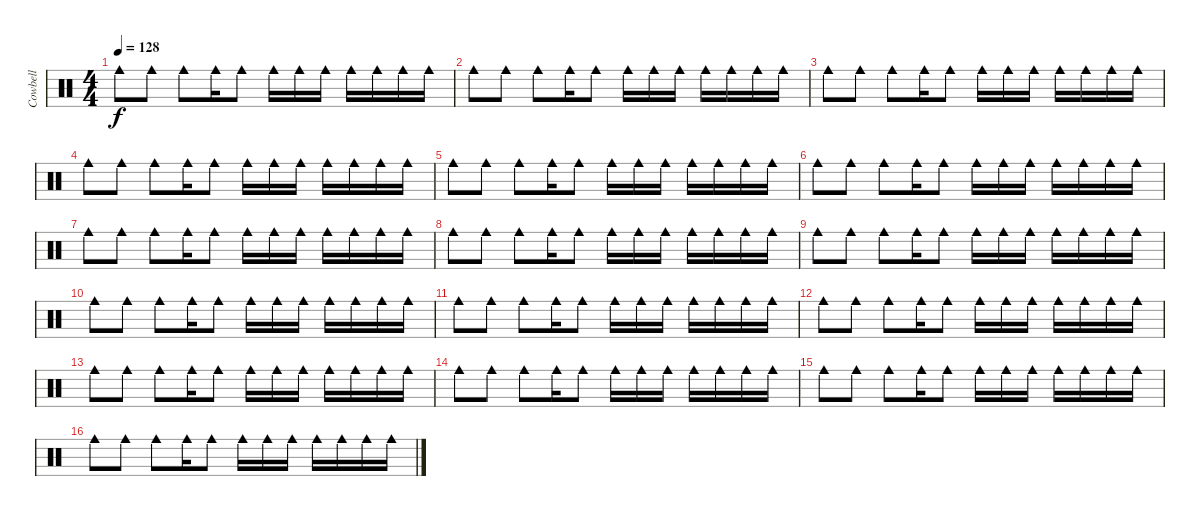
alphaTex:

\track ("Cowbell" "Cowbell") {instrument percussion}
\staff {score}
\articulation defaults
\ts (4 4)
\tempo 128
\clef neutral
\ks c "Cowbell medium (hit)".8{dy f} "Cowbell medium (hit)".8 "Cowbell medium (hit)".8 "Cowbell medium (hit)".16 "Cowbell medium (hit)".8 "Cowbell medium (hit)".16 "Cowbell medium (hit)".16 "Cowbell medium (hit)".16 "Cowbell medium (hit)".16 "Cowbell medium (hit)".16 "Cowbell medium (hit)".16 "Cowbell medium (hit)".16
|
"Cowbell medium (hit)".8 "Cowbell medium (hit)".8 "Cowbell medium (hit)".8 "Cowbell medium (hit)".16 "Cowbell medium (hit)".8 "Cowbell medium (hit)".16 "Cowbell medium (hit)".16 "Cowbell medium (hit)".16 "Cowbell medium (hit)".16 "Cowbell medium (hit)".16 "Cowbell medium (hit)".16 "Cowbell medium (hit)".16 |
"Cowbell medium (hit)".8 "Cowbell medium (hit)".8 "Cowbell medium (hit)".8 "Cowbell medium (hit)".16 "Cowbell medium (hit)".8 "Cowbell medium (hit)".16 "Cowbell medium (hit)".16 "Cowbell medium (hit)".16 "Cowbell medium (hit)".16 "Cowbell medium (hit)".16 "Cowbell medium (hit)".16 "Cowbell medium (hit)".16 |
"Cowbell medium (hit)".8 "Cowbell medium (hit)".8 "Cowbell medium (hit)".8 "Cowbell medium (hit)".16 "Cowbell medium (hit)".8 "Cowbell medium (hit)".16 "Cowbell medium (hit)".16 "Cowbell medium (hit)".16 "Cowbell medium (hit)".16 "Cowbell medium (hit)".16 "Cowbell medium (hit)".16 "Cowbell medium (hit)".16 |
"Cowbell medium (hit)".8 "Cowbell medium (hit)".8 "Cowbell medium (hit)".8 "Cowbell medium (hit)".16 "Cowbell medium (hit)".8 "Cowbell medium (hit)".16 "Cowbell medium (hit)".16 "Cowbell medium (hit)".16 "Cowbell medium (hit)".16 "Cowbell medium (hit)".16 "Cowbell medium (hit)".16 "Cowbell medium (hit)".16 |
"Cowbell medium (hit)".8 "Cowbell medium (hit)".8 "Cowbell medium (hit)".8 "Cowbell medium (hit)".16 "Cowbell medium (hit)".8 "Cowbell medium (hit)".16 "Cowbell medium (hit)".16 "Cowbell medium (hit)".16 "Cowbell medium (hit)".16 "Cowbell medium (hit)".16 "Cowbell medium (hit)".16 "Cowbell medium (hit)".16 |
"Cowbell medium (hit)".8 "Cowbell medium (hit)".8 "Cowbell medium (hit)".8 "Cowbell medium (hit)".16 "Cowbell medium (hit)".8 "Cowbell medium (hit)".16 "Cowbell medium (hit)".16 "Cowbell medium (hit)".16 "Cowbell medium (hit)".16 "Cowbell medium (hit)".16 "Cowbell medium (hit)".16 "Cowbell medium (hit)".16 |
"Cowbell medium (hit)".8 "Cowbell medium (hit)".8 "Cowbell medium (hit)".8 "Cowbell medium (hit)".16 "Cowbell medium (hit)".8 "Cowbell medium (hit)".16 "Cowbell medium (hit)".16 "Cowbell medium (hit)".16 "Cowbell medium (hit)".16 "Cowbell medium (hit)".16 "Cowbell medium (hit)".16 "Cowbell medium (hit)".16 |
"Cowbell medium (hit)".8 "Cowbell medium (hit)".8 "Cowbell medium (hit)".8 "Cowbell medium (hit)".16 "Cowbell medium (hit)".8 "Cowbell medium (hit)".16 "Cowbell medium (hit)".16 "Cowbell medium (hit)".16 "Cowbell medium (hit)".16 "Cowbell medium (hit)".16 "Cowbell medium (hit)".16 "Cowbell medium (hit)".16 |
"Cowbell medium (hit)".8 "Cowbell medium (hit)".8 "Cowbell medium (hit)".8 "Cowbell medium (hit)".16 "Cowbell medium (hit)".8 "Cowbell medium (hit)".16 "Cowbell medium (hit)".16 "Cowbell medium (hit)".16 "Cowbell medium (hit)".16 "Cowbell medium (hit)".16 "Cowbell medium (hit)".16 "Cowbell medium (hit)".16 |
"Cowbell medium (hit)".8 "Cowbell medium (hit)".8 "Cowbell medium (hit)".8 "Cowbell medium (hit)".16 "Cowbell medium (hit)".8 "Cowbell medium (hit)".16 "Cowbell medium (hit)".16 "Cowbell medium (hit)".16 "Cowbell medium (hit)".16 "Cowbell medium (hit)".16 "Cowbell medium (hit)".16 "Cowbell medium (hit)".16 |
"Cowbell medium (hit)".8 "Cowbell medium (hit)".8 "Cowbell medium (hit)".8 "Cowbell medium (hit)".16 "Cowbell medium (hit)".8 "Cowbell medium (hit)".16 "Cowbell medium (hit)".16 "Cowbell medium (hit)".16 "Cowbell medium (hit)".16 "Cowbell medium (hit)".16 "Cowbell medium (hit)".16 "Cowbell medium (hit)".16 |
"Cowbell medium (hit)".8 "Cowbell medium (hit)".8 "Cowbell medium (hit)".8 "Cowbell medium (hit)".16 "Cowbell medium (hit)".8 "Cowbell medium (hit)".16 "Cowbell medium (hit)".16 "Cowbell medium (hit)".16 "Cowbell medium (hit)".16 "Cowbell medium (hit)".16 "Cowbell medium (hit)".16 "Cowbell medium (hit)".16 |
"Cowbell medium (hit)".8 "Cowbell medium (hit)".8 "Cowbell medium (hit)".8 "Cowbell medium (hit)".16 "Cowbell medium (hit)".8 "Cowbell medium (hit)".16 "Cowbell medium (hit)".16 "Cowbell medium (hit)".16 "Cowbell medium (hit)".16 "Cowbell medium (hit)".16 "Cowbell medium (hit)".16 "Cowbell medium (hit)".16 |
"Cowbell medium (hit)".8 "Cowbell medium (hit)".8 "Cowbell medium (hit)".8 "Cowbell medium (hit)".16 "Cowbell medium (hit)".8 "Cowbell medium (hit)".16 "Cowbell medium (hit)".16 "Cowbell medium (hit)".16 "Cowbell medium (hit)".16 "Cowbell medium (hit)".16 "Cowbell medium (hit)".16 "Cowbell medium (hit)".16 |
"Cowbell medium (hit)".8 "Cowbell medium (hit)".8 "Cowbell medium (hit)".8 "Cowbell medium (hit)".16 "Cowbell medium (hit)".8 "Cowbell medium (hit)".16 "Cowbell medium (hit)".16 "Cowbell medium (hit)".16 "Cowbell medium (hit)".16 "Cowbell medium (hit)".16 "Cowbell medium (hit)".16 "Cowbell medium (hit)".16
